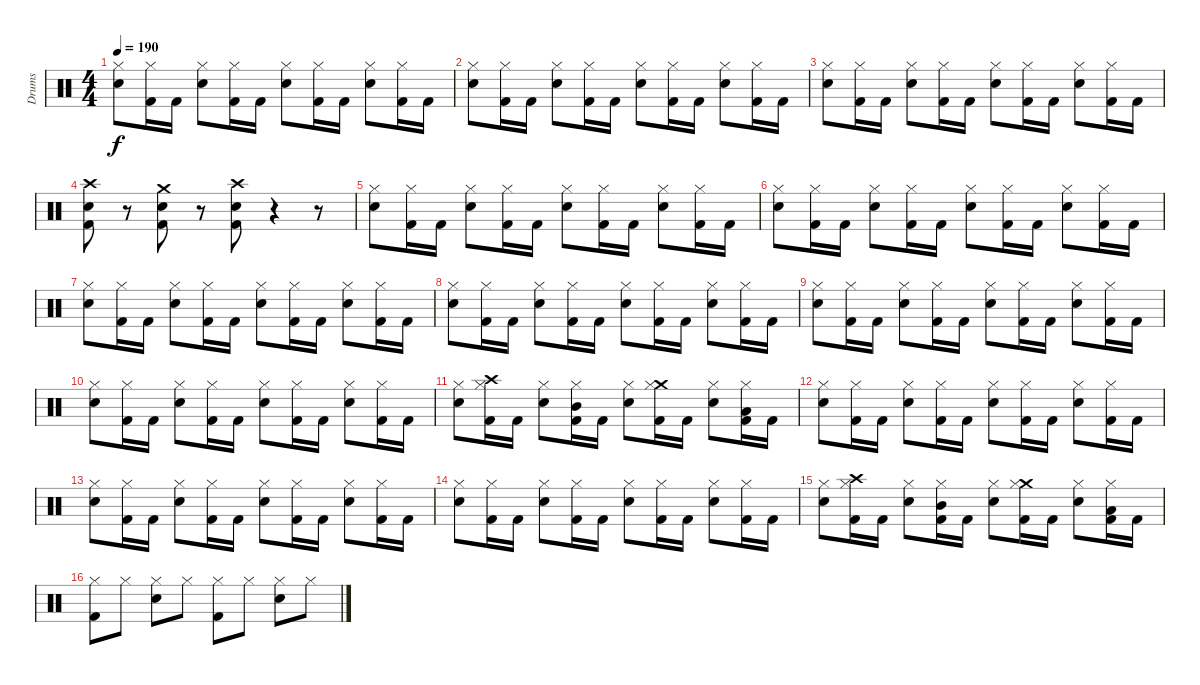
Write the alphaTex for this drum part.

\track ("Drums" "Drums") {instrument percussion}
\staff {score}
\articulation defaults
\ts (4 4)
\tempo 190
\clef neutral
\ks c
("Snare (hit) 2" "Hi-Hat (closed)").8{dy f} ("Kick (hit) 2" "Hi-Hat (closed)").16 "Kick (hit) 2".16 ("Snare (hit) 2" "Hi-Hat (closed)").8 ("Kick (hit) 2" "Hi-Hat (closed)").16 "Kick (hit) 2".16 ("Snare (hit) 2" "Hi-Hat (closed)").8 ("Kick (hit) 2" "Hi-Hat (closed)").16 "Kick (hit) 2".16 ("Snare (hit) 2" "Hi-Hat (closed)").8 ("Kick (hit) 2" "Hi-Hat (closed)").16 "Kick (hit) 2".16 |
("Snare (hit) 2" "Hi-Hat (closed)").8 ("Kick (hit) 2" "Hi-Hat (closed)").16 "Kick (hit) 2".16 ("Snare (hit) 2" "Hi-Hat (closed)").8 ("Kick (hit) 2" "Hi-Hat (closed)").16 "Kick (hit) 2".16 ("Snare (hit) 2" "Hi-Hat (closed)").8 ("Kick (hit) 2" "Hi-Hat (closed)").16 "Kick (hit) 2".16 ("Snare (hit) 2" "Hi-Hat (closed)").8 ("Kick (hit) 2" "Hi-Hat (closed)").16 "Kick (hit) 2".16 |
("Snare (hit) 2" "Hi-Hat (closed)").8 ("Kick (hit) 2" "Hi-Hat (closed)").16 "Kick (hit) 2".16 ("Snare (hit) 2" "Hi-Hat (closed)").8 ("Kick (hit) 2" "Hi-Hat (closed)").16 "Kick (hit) 2".16 ("Snare (hit) 2" "Hi-Hat (closed)").8 ("Kick (hit) 2" "Hi-Hat (closed)").16 "Kick (hit) 2".16 ("Snare (hit) 2" "Hi-Hat (closed)").8 ("Kick (hit) 2" "Hi-Hat (closed)").16 "Kick (hit) 2".16 |
("Crash high (hit)" "Kick (hit) 2" "Snare (hit) 2").8 r.8 ("Crash medium (hit)" "Kick (hit) 2" "Snare (hit) 2").8 r.8 ("Crash high (hit)" "Kick (hit) 2" "Snare (hit) 2").8 r.4 r.8 |
("Snare (hit) 2" "Hi-Hat (closed)").8 ("Kick (hit) 2" "Hi-Hat (closed)").16 "Kick (hit) 2".16 ("Snare (hit) 2" "Hi-Hat (closed)").8 ("Kick (hit) 2" "Hi-Hat (closed)").16 "Kick (hit) 2".16 ("Snare (hit) 2" "Hi-Hat (closed)").8 ("Kick (hit) 2" "Hi-Hat (closed)").16 "Kick (hit) 2".16 ("Snare (hit) 2" "Hi-Hat (closed)").8 ("Kick (hit) 2" "Hi-Hat (closed)").16 "Kick (hit) 2".16 |
("Snare (hit) 2" "Hi-Hat (closed)").8 ("Kick (hit) 2" "Hi-Hat (closed)").16 "Kick (hit) 2".16 ("Snare (hit) 2" "Hi-Hat (closed)").8 ("Kick (hit) 2" "Hi-Hat (closed)").16 "Kick (hit) 2".16 ("Snare (hit) 2" "Hi-Hat (closed)").8 ("Kick (hit) 2" "Hi-Hat (closed)").16 "Kick (hit) 2".16 ("Snare (hit) 2" "Hi-Hat (closed)").8 ("Kick (hit) 2" "Hi-Hat (closed)").16 "Kick (hit) 2".16 |
("Snare (hit) 2" "Hi-Hat (closed)").8 ("Kick (hit) 2" "Hi-Hat (closed)").16 "Kick (hit) 2".16 ("Snare (hit) 2" "Hi-Hat (closed)").8 ("Kick (hit) 2" "Hi-Hat (closed)").16 "Kick (hit) 2".16 ("Snare (hit) 2" "Hi-Hat (closed)").8 ("Kick (hit) 2" "Hi-Hat (closed)").16 "Kick (hit) 2".16 ("Snare (hit) 2" "Hi-Hat (closed)").8 ("Kick (hit) 2" "Hi-Hat (closed)").16 "Kick (hit) 2".16 |
("Snare (hit) 2" "Hi-Hat (closed)").8 ("Kick (hit) 2" "Hi-Hat (closed)").16 "Kick (hit) 2".16 ("Snare (hit) 2" "Hi-Hat (closed)").8 ("Kick (hit) 2" "Hi-Hat (closed)").16 "Kick (hit) 2".16 ("Snare (hit) 2" "Hi-Hat (closed)").8 ("Kick (hit) 2" "Hi-Hat (closed)").16 "Kick (hit) 2".16 ("Snare (hit) 2" "Hi-Hat (closed)").8 ("Kick (hit) 2" "Hi-Hat (closed)").16 "Kick (hit) 2".16 |
("Snare (hit) 2" "Hi-Hat (closed)").8 ("Kick (hit) 2" "Hi-Hat (closed)").16 "Kick (hit) 2".16 ("Snare (hit) 2" "Hi-Hat (closed)").8 ("Kick (hit) 2" "Hi-Hat (closed)").16 "Kick (hit) 2".16 ("Snare (hit) 2" "Hi-Hat (closed)").8 ("Kick (hit) 2" "Hi-Hat (closed)").16 "Kick (hit) 2".16 ("Snare (hit) 2" "Hi-Hat (closed)").8 ("Kick (hit) 2" "Hi-Hat (closed)").16 "Kick (hit) 2".16 |
("Snare (hit) 2" "Hi-Hat (closed)").8 ("Kick (hit) 2" "Hi-Hat (closed)").16 "Kick (hit) 2".16 ("Snare (hit) 2" "Hi-Hat (closed)").8 ("Kick (hit) 2" "Hi-Hat (closed)").16 "Kick (hit) 2".16 ("Snare (hit) 2" "Hi-Hat (closed)").8 ("Kick (hit) 2" "Hi-Hat (closed)").16 "Kick (hit) 2".16 ("Snare (hit) 2" "Hi-Hat (closed)").8 ("Kick (hit) 2" "Hi-Hat (closed)").16 "Kick (hit) 2".16 |
("Snare (hit) 2" "Hi-Hat (closed)").8 ("Kick (hit) 2" "Crash high (hit)" "Hi-Hat (closed)").16 "Kick (hit) 2".16 ("Snare (hit) 2" "Hi-Hat (closed)").8 ("Kick (hit) 2" "Mid Tom (hit)" "Hi-Hat (closed)").16 "Kick (hit) 2".16 ("Snare (hit) 2" "Hi-Hat (closed)").8 ("Kick (hit) 2" "Crash medium (hit)" "Hi-Hat (closed)").16 "Kick (hit) 2".16 ("Snare (hit) 2" "Hi-Hat (closed)").8 ("Kick (hit) 2" "Low Tom (hit)" "Hi-Hat (closed)").16 "Kick (hit) 2".16 |
("Snare (hit) 2" "Hi-Hat (closed)").8 ("Kick (hit) 2" "Hi-Hat (closed)").16 "Kick (hit) 2".16 ("Snare (hit) 2" "Hi-Hat (closed)").8 ("Kick (hit) 2" "Hi-Hat (closed)").16 "Kick (hit) 2".16 ("Snare (hit) 2" "Hi-Hat (closed)").8 ("Kick (hit) 2" "Hi-Hat (closed)").16 "Kick (hit) 2".16 ("Snare (hit) 2" "Hi-Hat (closed)").8 ("Kick (hit) 2" "Hi-Hat (closed)").16 "Kick (hit) 2".16 |
("Snare (hit) 2" "Hi-Hat (closed)").8 ("Kick (hit) 2" "Hi-Hat (closed)").16 "Kick (hit) 2".16 ("Snare (hit) 2" "Hi-Hat (closed)").8 ("Kick (hit) 2" "Hi-Hat (closed)").16 "Kick (hit) 2".16 ("Snare (hit) 2" "Hi-Hat (closed)").8 ("Kick (hit) 2" "Hi-Hat (closed)").16 "Kick (hit) 2".16 ("Snare (hit) 2" "Hi-Hat (closed)").8 ("Kick (hit) 2" "Hi-Hat (closed)").16 "Kick (hit) 2".16 |
("Snare (hit) 2" "Hi-Hat (closed)").8 ("Kick (hit) 2" "Hi-Hat (closed)").16 "Kick (hit) 2".16 ("Snare (hit) 2" "Hi-Hat (closed)").8 ("Kick (hit) 2" "Hi-Hat (closed)").16 "Kick (hit) 2".16 ("Snare (hit) 2" "Hi-Hat (closed)").8 ("Kick (hit) 2" "Hi-Hat (closed)").16 "Kick (hit) 2".16 ("Snare (hit) 2" "Hi-Hat (closed)").8 ("Kick (hit) 2" "Hi-Hat (closed)").16 "Kick (hit) 2".16 |
("Snare (hit) 2" "Hi-Hat (closed)").8 ("Kick (hit) 2" "Crash high (hit)" "Hi-Hat (closed)").16 "Kick (hit) 2".16 ("Snare (hit) 2" "Hi-Hat (closed)").8 ("Kick (hit) 2" "Mid Tom (hit)" "Hi-Hat (closed)").16 "Kick (hit) 2".16 ("Snare (hit) 2" "Hi-Hat (closed)").8 ("Kick (hit) 2" "Crash medium (hit)" "Hi-Hat (closed)").16 "Kick (hit) 2".16 ("Snare (hit) 2" "Hi-Hat (closed)").8 ("Kick (hit) 2" "Low Tom (hit)" "Hi-Hat (closed)").16 "Kick (hit) 2".16 |
("Kick (hit) 2" "Hi-Hat (closed)").8 "Hi-Hat (closed)".8 ("Snare (hit) 2" "Hi-Hat (closed)").8 "Hi-Hat (closed)".8 ("Kick (hit) 2" "Hi-Hat (closed)").8 "Hi-Hat (closed)".8 ("Snare (hit) 2" "Hi-Hat (closed)").8 "Hi-Hat (closed)".8
